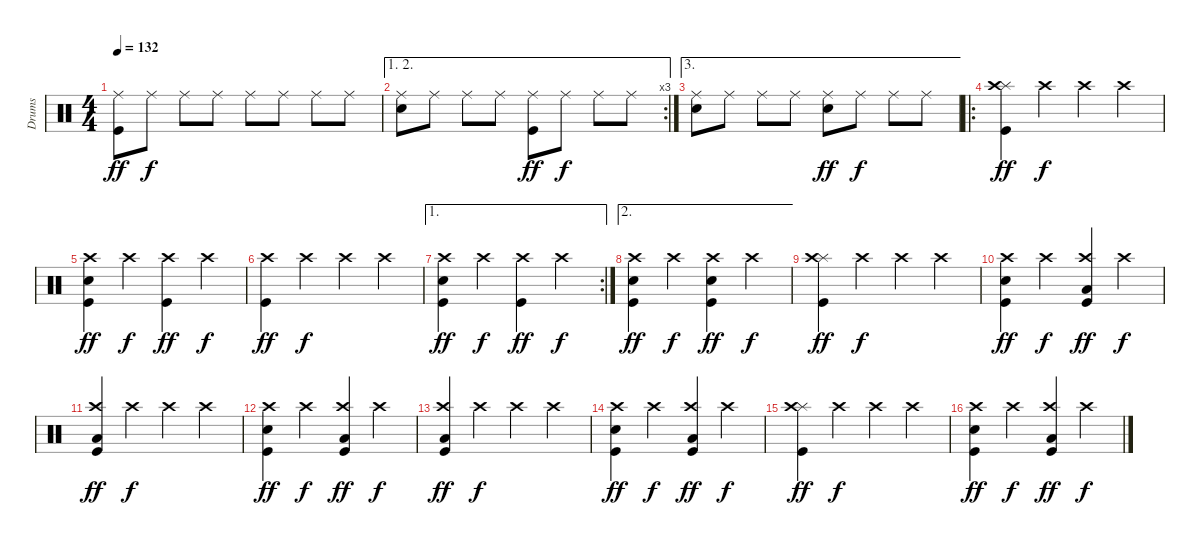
\track ("Drums" "Drums") {instrument percussion}
\staff {score}
\articulation defaults
\ts (4 4)
\tempo 132
\clef neutral
\ks c
("Ride (middle)" "Kick (hit)").8{dy ff} "Ride (middle)".8{dy f} "Ride (middle)".8 "Ride (middle)".8 "Ride (middle)".8 "Ride (middle)".8 "Ride (middle)".8 "Ride (middle)".8 |
\ae (1 2)
\rc 3
("Ride (middle)" "Electric Snare (hit)").8 "Ride (middle)".8 "Ride (middle)".8 "Ride (middle)".8 ("Ride (middle)" "Kick (hit)").8{dy ff} "Ride (middle)".8{dy f} "Ride (middle)".8 "Ride (middle)".8 |
\ae 3
("Ride (middle)" "Electric Snare (hit)").8 "Ride (middle)".8 "Ride (middle)".8 "Ride (middle)".8 ("Ride (middle)" "Electric Snare (hit)").8{dy ff} "Ride (middle)".8{dy f} "Ride (middle)".8 "Ride (middle)".8 |
\ro
("Splash (hit)" "Crash high (hit)" "Kick (hit)").4{dy ff} "Crash high (hit)".4{dy f} "Crash high (hit)".4 "Crash high (hit)".4 |
("Crash high (hit)" "Electric Snare (hit)" "Kick (hit)").4{dy ff} "Crash high (hit)".4{dy f} ("Crash high (hit)" "Kick (hit)").4{dy ff} "Crash high (hit)".4{dy f} |
("Crash high (hit)" "Kick (hit)").4{dy ff} "Crash high (hit)".4{dy f} "Crash high (hit)".4 "Crash high (hit)".4 |
\ae 1
\rc 2
("Crash high (hit)" "Electric Snare (hit)" "Kick (hit)").4{dy ff} "Crash high (hit)".4{dy f} ("Crash high (hit)" "Kick (hit)").4{dy ff} "Crash high (hit)".4{dy f} |
\ae 2
("Crash high (hit)" "Electric Snare (hit)" "Kick (hit)").4{dy ff} "Crash high (hit)".4{dy f} ("Crash high (hit)" "Electric Snare (hit)" "Kick (hit)").4{dy ff} "Crash high (hit)".4{dy f} |
("Splash (hit)" "Crash high (hit)" "Kick (hit)").4{dy ff} "Crash high (hit)".4{dy f} "Crash high (hit)".4 "Crash high (hit)".4 |
("Crash high (hit)" "Electric Snare (hit)" "Kick (hit)").4{dy ff} "Crash high (hit)".4{dy f} ("Crash high (hit)" "Low Floor Tom (hit)" "Kick (hit)").4{dy ff} "Crash high (hit)".4{dy f} |
("Crash high (hit)" "Low Floor Tom (hit)" "Kick (hit)").4{dy ff} "Crash high (hit)".4{dy f} "Crash high (hit)".4 "Crash high (hit)".4 |
("Crash high (hit)" "Electric Snare (hit)" "Kick (hit)").4{dy ff} "Crash high (hit)".4{dy f} ("Crash high (hit)" "Low Floor Tom (hit)" "Kick (hit)").4{dy ff} "Crash high (hit)".4{dy f} |
("Crash high (hit)" "Low Floor Tom (hit)" "Kick (hit)").4{dy ff} "Crash high (hit)".4{dy f} "Crash high (hit)".4 "Crash high (hit)".4 |
("Crash high (hit)" "Electric Snare (hit)" "Kick (hit)").4{dy ff} "Crash high (hit)".4{dy f} ("Crash high (hit)" "Low Floor Tom (hit)" "Kick (hit)").4{dy ff} "Crash high (hit)".4{dy f} |
("Splash (hit)" "Crash high (hit)" "Kick (hit)").4{dy ff} "Crash high (hit)".4{dy f} "Crash high (hit)".4 "Crash high (hit)".4 |
("Crash high (hit)" "Electric Snare (hit)" "Kick (hit)").4{dy ff} "Crash high (hit)".4{dy f} ("Crash high (hit)" "Low Floor Tom (hit)" "Kick (hit)").4{dy ff} "Crash high (hit)".4{dy f}
